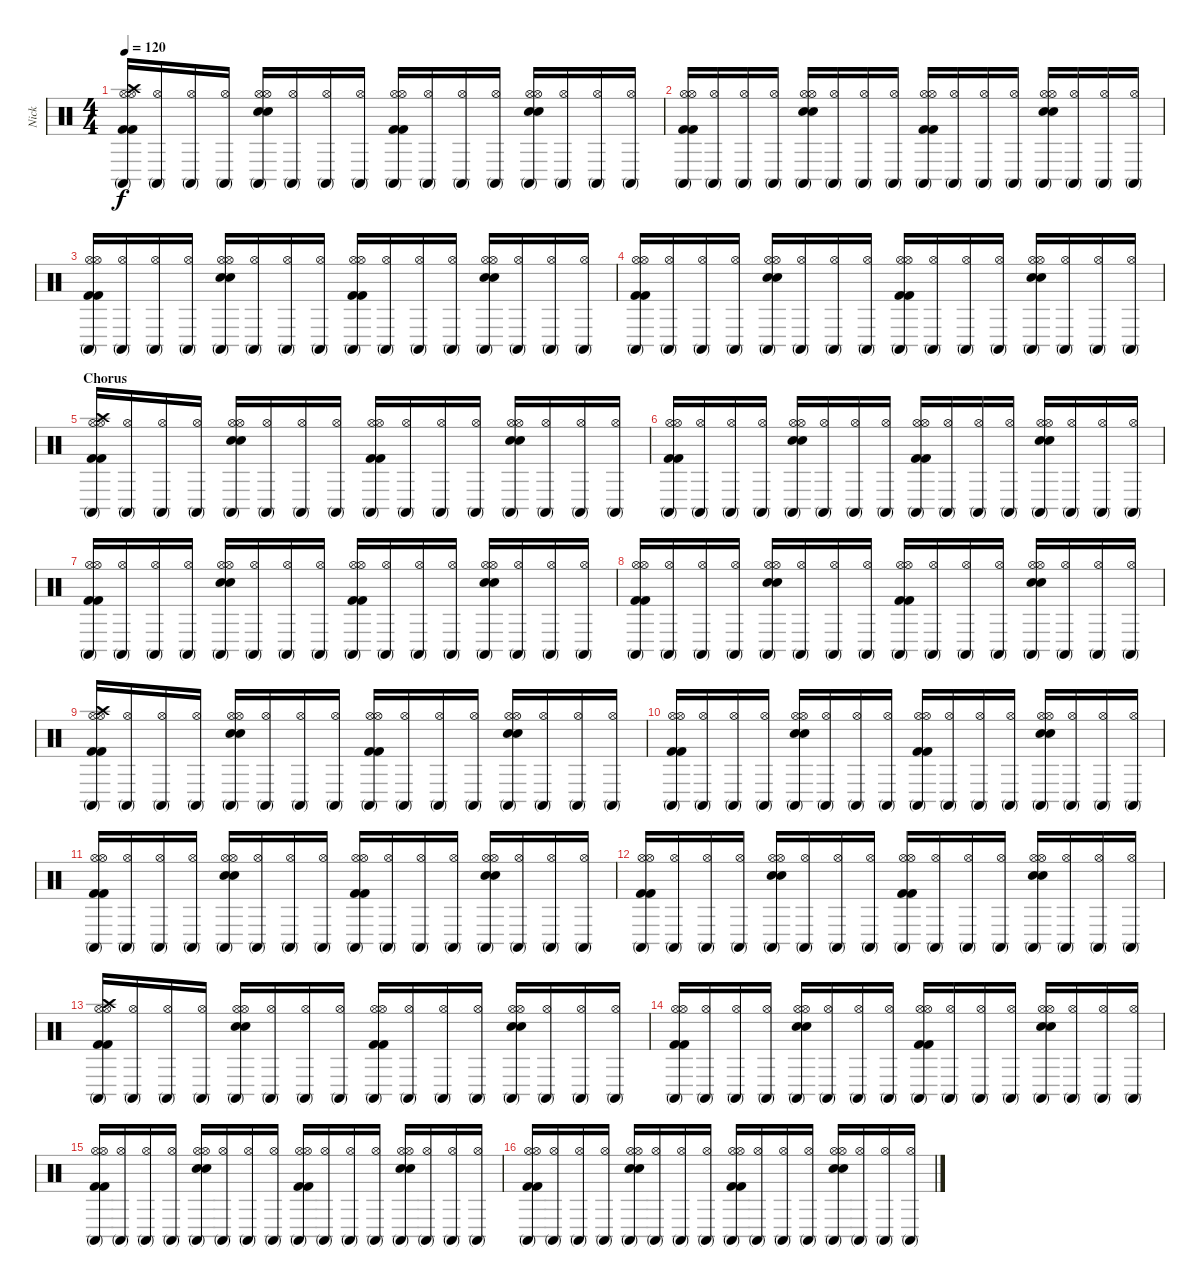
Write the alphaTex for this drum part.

\track ("Nick" "Nick") {instrument percussion}
\staff {score}
\articulation defaults
\ts (4 4)
\tempo 120
\clef neutral
\ks c
("Hi-Hat (open)" "Hi-Hat (open)" "Crash high (hit)" "Kick (hit) 2" "Kick (hit) 2" "Conga high (mute)").16{dy f} ("Hi-Hat (open)" "Conga high (mute)").16 ("Hi-Hat (open)" "Conga high (mute)").16 ("Hi-Hat (open)" "Conga high (mute)").16 ("Hi-Hat (open)" "Hi-Hat (open)" "Snare (hit) 2" "Snare (hit) 2" "Conga high (mute)").16 ("Hi-Hat (open)" "Conga high (mute)").16 ("Hi-Hat (open)" "Conga high (mute)").16 ("Hi-Hat (open)" "Conga high (mute)").16 ("Hi-Hat (open)" "Hi-Hat (open)" "Kick (hit) 2" "Kick (hit) 2" "Conga high (mute)").16 ("Hi-Hat (open)" "Conga high (mute)").16 ("Hi-Hat (open)" "Conga high (mute)").16 ("Hi-Hat (open)" "Conga high (mute)").16 ("Hi-Hat (open)" "Hi-Hat (open)" "Snare (hit) 2" "Snare (hit) 2" "Conga high (mute)").16 ("Hi-Hat (open)" "Conga high (mute)").16 ("Hi-Hat (open)" "Conga high (mute)").16 ("Hi-Hat (open)" "Conga high (mute)").16 |
("Hi-Hat (open)" "Hi-Hat (open)" "Kick (hit) 2" "Kick (hit) 2" "Conga high (mute)").16 ("Hi-Hat (open)" "Conga high (mute)").16 ("Hi-Hat (open)" "Conga high (mute)").16 ("Hi-Hat (open)" "Conga high (mute)").16 ("Hi-Hat (open)" "Hi-Hat (open)" "Snare (hit) 2" "Snare (hit) 2" "Conga high (mute)").16 ("Hi-Hat (open)" "Conga high (mute)").16 ("Hi-Hat (open)" "Conga high (mute)").16 ("Hi-Hat (open)" "Conga high (mute)").16 ("Hi-Hat (open)" "Hi-Hat (open)" "Kick (hit) 2" "Kick (hit) 2" "Conga high (mute)").16 ("Hi-Hat (open)" "Conga high (mute)").16 ("Hi-Hat (open)" "Conga high (mute)").16 ("Hi-Hat (open)" "Conga high (mute)").16 ("Hi-Hat (open)" "Hi-Hat (open)" "Snare (hit) 2" "Snare (hit) 2" "Conga high (mute)").16 ("Hi-Hat (open)" "Conga high (mute)").16 ("Hi-Hat (open)" "Conga high (mute)").16 ("Hi-Hat (open)" "Conga high (mute)").16 |
("Hi-Hat (open)" "Hi-Hat (open)" "Kick (hit) 2" "Kick (hit) 2" "Conga high (mute)").16 ("Hi-Hat (open)" "Conga high (mute)").16 ("Hi-Hat (open)" "Conga high (mute)").16 ("Hi-Hat (open)" "Conga high (mute)").16 ("Hi-Hat (open)" "Hi-Hat (open)" "Snare (hit) 2" "Snare (hit) 2" "Conga high (mute)").16 ("Hi-Hat (open)" "Conga high (mute)").16 ("Hi-Hat (open)" "Conga high (mute)").16 ("Hi-Hat (open)" "Conga high (mute)").16 ("Hi-Hat (open)" "Hi-Hat (open)" "Kick (hit) 2" "Kick (hit) 2" "Conga high (mute)").16 ("Hi-Hat (open)" "Conga high (mute)").16 ("Hi-Hat (open)" "Conga high (mute)").16 ("Hi-Hat (open)" "Conga high (mute)").16 ("Hi-Hat (open)" "Hi-Hat (open)" "Snare (hit) 2" "Snare (hit) 2" "Conga high (mute)").16 ("Hi-Hat (open)" "Conga high (mute)").16 ("Hi-Hat (open)" "Conga high (mute)").16 ("Hi-Hat (open)" "Conga high (mute)").16 |
("Hi-Hat (open)" "Hi-Hat (open)" "Kick (hit) 2" "Kick (hit) 2" "Conga high (mute)").16 ("Hi-Hat (open)" "Conga high (mute)").16 ("Hi-Hat (open)" "Conga high (mute)").16 ("Hi-Hat (open)" "Conga high (mute)").16 ("Hi-Hat (open)" "Hi-Hat (open)" "Snare (hit) 2" "Snare (hit) 2" "Conga high (mute)").16 ("Hi-Hat (open)" "Conga high (mute)").16 ("Hi-Hat (open)" "Conga high (mute)").16 ("Hi-Hat (open)" "Conga high (mute)").16 ("Hi-Hat (open)" "Hi-Hat (open)" "Kick (hit) 2" "Kick (hit) 2" "Conga high (mute)").16 ("Hi-Hat (open)" "Conga high (mute)").16 ("Hi-Hat (open)" "Conga high (mute)").16 ("Hi-Hat (open)" "Conga high (mute)").16 ("Hi-Hat (open)" "Hi-Hat (open)" "Snare (hit) 2" "Snare (hit) 2" "Conga high (mute)").16 ("Hi-Hat (open)" "Conga high (mute)").16 ("Hi-Hat (open)" "Conga high (mute)").16 ("Hi-Hat (open)" "Conga high (mute)").16 |
\section ("" "Chorus")
("Hi-Hat (open)" "Hi-Hat (open)" "Crash high (hit)" "Kick (hit) 2" "Kick (hit) 2" "Conga high (mute)").16 ("Hi-Hat (open)" "Conga high (mute)").16 ("Hi-Hat (open)" "Conga high (mute)").16 ("Hi-Hat (open)" "Conga high (mute)").16 ("Hi-Hat (open)" "Hi-Hat (open)" "Snare (hit) 2" "Snare (hit) 2" "Conga high (mute)").16 ("Hi-Hat (open)" "Conga high (mute)").16 ("Hi-Hat (open)" "Conga high (mute)").16 ("Hi-Hat (open)" "Conga high (mute)").16 ("Hi-Hat (open)" "Hi-Hat (open)" "Kick (hit) 2" "Kick (hit) 2" "Conga high (mute)").16 ("Hi-Hat (open)" "Conga high (mute)").16 ("Hi-Hat (open)" "Conga high (mute)").16 ("Hi-Hat (open)" "Conga high (mute)").16 ("Hi-Hat (open)" "Hi-Hat (open)" "Snare (hit) 2" "Snare (hit) 2" "Conga high (mute)").16 ("Hi-Hat (open)" "Conga high (mute)").16 ("Hi-Hat (open)" "Conga high (mute)").16 ("Hi-Hat (open)" "Conga high (mute)").16 |
("Hi-Hat (open)" "Hi-Hat (open)" "Kick (hit) 2" "Kick (hit) 2" "Conga high (mute)").16 ("Hi-Hat (open)" "Conga high (mute)").16 ("Hi-Hat (open)" "Conga high (mute)").16 ("Hi-Hat (open)" "Conga high (mute)").16 ("Hi-Hat (open)" "Hi-Hat (open)" "Snare (hit) 2" "Snare (hit) 2" "Conga high (mute)").16 ("Hi-Hat (open)" "Conga high (mute)").16 ("Hi-Hat (open)" "Conga high (mute)").16 ("Hi-Hat (open)" "Conga high (mute)").16 ("Hi-Hat (open)" "Hi-Hat (open)" "Kick (hit) 2" "Kick (hit) 2" "Conga high (mute)").16 ("Hi-Hat (open)" "Conga high (mute)").16 ("Hi-Hat (open)" "Conga high (mute)").16 ("Hi-Hat (open)" "Conga high (mute)").16 ("Hi-Hat (open)" "Hi-Hat (open)" "Snare (hit) 2" "Snare (hit) 2" "Conga high (mute)").16 ("Hi-Hat (open)" "Conga high (mute)").16 ("Hi-Hat (open)" "Conga high (mute)").16 ("Hi-Hat (open)" "Conga high (mute)").16 |
("Hi-Hat (open)" "Hi-Hat (open)" "Kick (hit) 2" "Kick (hit) 2" "Conga high (mute)").16 ("Hi-Hat (open)" "Conga high (mute)").16 ("Hi-Hat (open)" "Conga high (mute)").16 ("Hi-Hat (open)" "Conga high (mute)").16 ("Hi-Hat (open)" "Hi-Hat (open)" "Snare (hit) 2" "Snare (hit) 2" "Conga high (mute)").16 ("Hi-Hat (open)" "Conga high (mute)").16 ("Hi-Hat (open)" "Conga high (mute)").16 ("Hi-Hat (open)" "Conga high (mute)").16 ("Hi-Hat (open)" "Hi-Hat (open)" "Kick (hit) 2" "Kick (hit) 2" "Conga high (mute)").16 ("Hi-Hat (open)" "Conga high (mute)").16 ("Hi-Hat (open)" "Conga high (mute)").16 ("Hi-Hat (open)" "Conga high (mute)").16 ("Hi-Hat (open)" "Hi-Hat (open)" "Snare (hit) 2" "Snare (hit) 2" "Conga high (mute)").16 ("Hi-Hat (open)" "Conga high (mute)").16 ("Hi-Hat (open)" "Conga high (mute)").16 ("Hi-Hat (open)" "Conga high (mute)").16 |
("Hi-Hat (open)" "Hi-Hat (open)" "Kick (hit) 2" "Kick (hit) 2" "Conga high (mute)").16 ("Hi-Hat (open)" "Conga high (mute)").16 ("Hi-Hat (open)" "Conga high (mute)").16 ("Hi-Hat (open)" "Conga high (mute)").16 ("Hi-Hat (open)" "Hi-Hat (open)" "Snare (hit) 2" "Snare (hit) 2" "Conga high (mute)").16 ("Hi-Hat (open)" "Conga high (mute)").16 ("Hi-Hat (open)" "Conga high (mute)").16 ("Hi-Hat (open)" "Conga high (mute)").16 ("Hi-Hat (open)" "Hi-Hat (open)" "Kick (hit) 2" "Kick (hit) 2" "Conga high (mute)").16 ("Hi-Hat (open)" "Conga high (mute)").16 ("Hi-Hat (open)" "Conga high (mute)").16 ("Hi-Hat (open)" "Conga high (mute)").16 ("Hi-Hat (open)" "Hi-Hat (open)" "Snare (hit) 2" "Snare (hit) 2" "Conga high (mute)").16 ("Hi-Hat (open)" "Conga high (mute)").16 ("Hi-Hat (open)" "Conga high (mute)").16 ("Hi-Hat (open)" "Conga high (mute)").16 |
("Hi-Hat (open)" "Hi-Hat (open)" "Crash high (hit)" "Kick (hit) 2" "Kick (hit) 2" "Conga high (mute)").16 ("Hi-Hat (open)" "Conga high (mute)").16 ("Hi-Hat (open)" "Conga high (mute)").16 ("Hi-Hat (open)" "Conga high (mute)").16 ("Hi-Hat (open)" "Hi-Hat (open)" "Snare (hit) 2" "Snare (hit) 2" "Conga high (mute)").16 ("Hi-Hat (open)" "Conga high (mute)").16 ("Hi-Hat (open)" "Conga high (mute)").16 ("Hi-Hat (open)" "Conga high (mute)").16 ("Hi-Hat (open)" "Hi-Hat (open)" "Kick (hit) 2" "Kick (hit) 2" "Conga high (mute)").16 ("Hi-Hat (open)" "Conga high (mute)").16 ("Hi-Hat (open)" "Conga high (mute)").16 ("Hi-Hat (open)" "Conga high (mute)").16 ("Hi-Hat (open)" "Hi-Hat (open)" "Snare (hit) 2" "Snare (hit) 2" "Conga high (mute)").16 ("Hi-Hat (open)" "Conga high (mute)").16 ("Hi-Hat (open)" "Conga high (mute)").16 ("Hi-Hat (open)" "Conga high (mute)").16 |
("Hi-Hat (open)" "Hi-Hat (open)" "Kick (hit) 2" "Kick (hit) 2" "Conga high (mute)").16 ("Hi-Hat (open)" "Conga high (mute)").16 ("Hi-Hat (open)" "Conga high (mute)").16 ("Hi-Hat (open)" "Conga high (mute)").16 ("Hi-Hat (open)" "Hi-Hat (open)" "Snare (hit) 2" "Snare (hit) 2" "Conga high (mute)").16 ("Hi-Hat (open)" "Conga high (mute)").16 ("Hi-Hat (open)" "Conga high (mute)").16 ("Hi-Hat (open)" "Conga high (mute)").16 ("Hi-Hat (open)" "Hi-Hat (open)" "Kick (hit) 2" "Kick (hit) 2" "Conga high (mute)").16 ("Hi-Hat (open)" "Conga high (mute)").16 ("Hi-Hat (open)" "Conga high (mute)").16 ("Hi-Hat (open)" "Conga high (mute)").16 ("Hi-Hat (open)" "Hi-Hat (open)" "Snare (hit) 2" "Snare (hit) 2" "Conga high (mute)").16 ("Hi-Hat (open)" "Conga high (mute)").16 ("Hi-Hat (open)" "Conga high (mute)").16 ("Hi-Hat (open)" "Conga high (mute)").16 |
("Hi-Hat (open)" "Hi-Hat (open)" "Kick (hit) 2" "Kick (hit) 2" "Conga high (mute)").16 ("Hi-Hat (open)" "Conga high (mute)").16 ("Hi-Hat (open)" "Conga high (mute)").16 ("Hi-Hat (open)" "Conga high (mute)").16 ("Hi-Hat (open)" "Hi-Hat (open)" "Snare (hit) 2" "Snare (hit) 2" "Conga high (mute)").16 ("Hi-Hat (open)" "Conga high (mute)").16 ("Hi-Hat (open)" "Conga high (mute)").16 ("Hi-Hat (open)" "Conga high (mute)").16 ("Hi-Hat (open)" "Hi-Hat (open)" "Kick (hit) 2" "Kick (hit) 2" "Conga high (mute)").16 ("Hi-Hat (open)" "Conga high (mute)").16 ("Hi-Hat (open)" "Conga high (mute)").16 ("Hi-Hat (open)" "Conga high (mute)").16 ("Hi-Hat (open)" "Hi-Hat (open)" "Snare (hit) 2" "Snare (hit) 2" "Conga high (mute)").16 ("Hi-Hat (open)" "Conga high (mute)").16 ("Hi-Hat (open)" "Conga high (mute)").16 ("Hi-Hat (open)" "Conga high (mute)").16 |
("Hi-Hat (open)" "Hi-Hat (open)" "Kick (hit) 2" "Kick (hit) 2" "Conga high (mute)").16 ("Hi-Hat (open)" "Conga high (mute)").16 ("Hi-Hat (open)" "Conga high (mute)").16 ("Hi-Hat (open)" "Conga high (mute)").16 ("Hi-Hat (open)" "Hi-Hat (open)" "Snare (hit) 2" "Snare (hit) 2" "Conga high (mute)").16 ("Hi-Hat (open)" "Conga high (mute)").16 ("Hi-Hat (open)" "Conga high (mute)").16 ("Hi-Hat (open)" "Conga high (mute)").16 ("Hi-Hat (open)" "Hi-Hat (open)" "Kick (hit) 2" "Kick (hit) 2" "Conga high (mute)").16 ("Hi-Hat (open)" "Conga high (mute)").16 ("Hi-Hat (open)" "Conga high (mute)").16 ("Hi-Hat (open)" "Conga high (mute)").16 ("Hi-Hat (open)" "Hi-Hat (open)" "Snare (hit) 2" "Snare (hit) 2" "Conga high (mute)").16 ("Hi-Hat (open)" "Conga high (mute)").16 ("Hi-Hat (open)" "Conga high (mute)").16 ("Hi-Hat (open)" "Conga high (mute)").16 |
("Hi-Hat (open)" "Hi-Hat (open)" "Crash high (hit)" "Kick (hit) 2" "Kick (hit) 2" "Conga high (mute)").16 ("Hi-Hat (open)" "Conga high (mute)").16 ("Hi-Hat (open)" "Conga high (mute)").16 ("Hi-Hat (open)" "Conga high (mute)").16 ("Hi-Hat (open)" "Hi-Hat (open)" "Snare (hit) 2" "Snare (hit) 2" "Conga high (mute)").16 ("Hi-Hat (open)" "Conga high (mute)").16 ("Hi-Hat (open)" "Conga high (mute)").16 ("Hi-Hat (open)" "Conga high (mute)").16 ("Hi-Hat (open)" "Hi-Hat (open)" "Kick (hit) 2" "Kick (hit) 2" "Conga high (mute)").16 ("Hi-Hat (open)" "Conga high (mute)").16 ("Hi-Hat (open)" "Conga high (mute)").16 ("Hi-Hat (open)" "Conga high (mute)").16 ("Hi-Hat (open)" "Hi-Hat (open)" "Snare (hit) 2" "Snare (hit) 2" "Conga high (mute)").16 ("Hi-Hat (open)" "Conga high (mute)").16 ("Hi-Hat (open)" "Conga high (mute)").16 ("Hi-Hat (open)" "Conga high (mute)").16 |
("Hi-Hat (open)" "Hi-Hat (open)" "Kick (hit) 2" "Kick (hit) 2" "Conga high (mute)").16 ("Hi-Hat (open)" "Conga high (mute)").16 ("Hi-Hat (open)" "Conga high (mute)").16 ("Hi-Hat (open)" "Conga high (mute)").16 ("Hi-Hat (open)" "Hi-Hat (open)" "Snare (hit) 2" "Snare (hit) 2" "Conga high (mute)").16 ("Hi-Hat (open)" "Conga high (mute)").16 ("Hi-Hat (open)" "Conga high (mute)").16 ("Hi-Hat (open)" "Conga high (mute)").16 ("Hi-Hat (open)" "Hi-Hat (open)" "Kick (hit) 2" "Kick (hit) 2" "Conga high (mute)").16 ("Hi-Hat (open)" "Conga high (mute)").16 ("Hi-Hat (open)" "Conga high (mute)").16 ("Hi-Hat (open)" "Conga high (mute)").16 ("Hi-Hat (open)" "Hi-Hat (open)" "Snare (hit) 2" "Snare (hit) 2" "Conga high (mute)").16 ("Hi-Hat (open)" "Conga high (mute)").16 ("Hi-Hat (open)" "Conga high (mute)").16 ("Hi-Hat (open)" "Conga high (mute)").16 |
("Hi-Hat (open)" "Hi-Hat (open)" "Kick (hit) 2" "Kick (hit) 2" "Conga high (mute)").16 ("Hi-Hat (open)" "Conga high (mute)").16 ("Hi-Hat (open)" "Conga high (mute)").16 ("Hi-Hat (open)" "Conga high (mute)").16 ("Hi-Hat (open)" "Hi-Hat (open)" "Snare (hit) 2" "Snare (hit) 2" "Conga high (mute)").16 ("Hi-Hat (open)" "Conga high (mute)").16 ("Hi-Hat (open)" "Conga high (mute)").16 ("Hi-Hat (open)" "Conga high (mute)").16 ("Hi-Hat (open)" "Hi-Hat (open)" "Kick (hit) 2" "Kick (hit) 2" "Conga high (mute)").16 ("Hi-Hat (open)" "Conga high (mute)").16 ("Hi-Hat (open)" "Conga high (mute)").16 ("Hi-Hat (open)" "Conga high (mute)").16 ("Hi-Hat (open)" "Hi-Hat (open)" "Snare (hit) 2" "Snare (hit) 2" "Conga high (mute)").16 ("Hi-Hat (open)" "Conga high (mute)").16 ("Hi-Hat (open)" "Conga high (mute)").16 ("Hi-Hat (open)" "Conga high (mute)").16 |
("Hi-Hat (open)" "Hi-Hat (open)" "Kick (hit) 2" "Kick (hit) 2" "Conga high (mute)").16 ("Hi-Hat (open)" "Conga high (mute)").16 ("Hi-Hat (open)" "Conga high (mute)").16 ("Hi-Hat (open)" "Conga high (mute)").16 ("Hi-Hat (open)" "Hi-Hat (open)" "Snare (hit) 2" "Snare (hit) 2" "Conga high (mute)").16 ("Hi-Hat (open)" "Conga high (mute)").16 ("Hi-Hat (open)" "Conga high (mute)").16 ("Hi-Hat (open)" "Conga high (mute)").16 ("Hi-Hat (open)" "Hi-Hat (open)" "Kick (hit) 2" "Kick (hit) 2" "Conga high (mute)").16 ("Hi-Hat (open)" "Conga high (mute)").16 ("Hi-Hat (open)" "Conga high (mute)").16 ("Hi-Hat (open)" "Conga high (mute)").16 ("Hi-Hat (open)" "Hi-Hat (open)" "Snare (hit) 2" "Snare (hit) 2" "Conga high (mute)").16 ("Hi-Hat (open)" "Conga high (mute)").16 ("Hi-Hat (open)" "Conga high (mute)").16 ("Hi-Hat (open)" "Conga high (mute)").16
